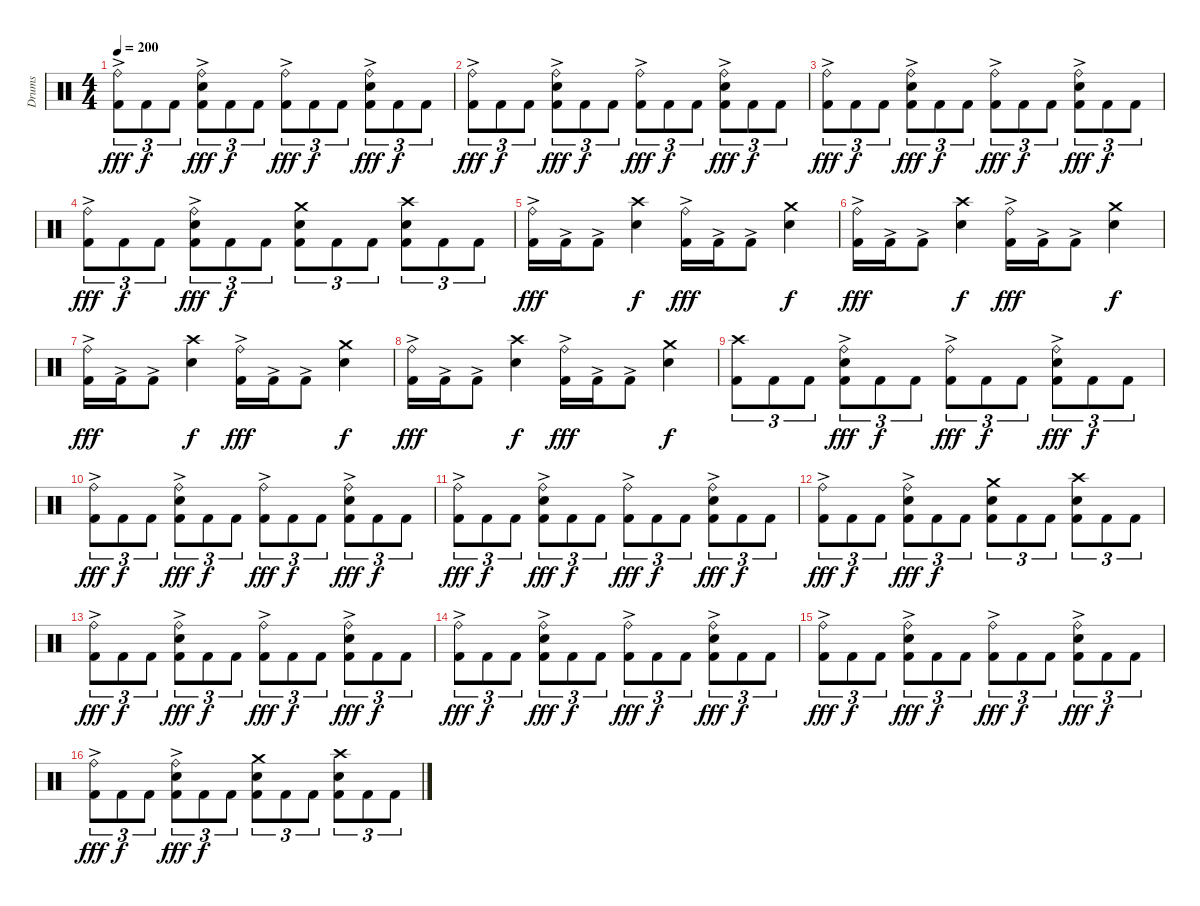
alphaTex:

\track ("Drums" "Drums") {instrument percussion}
\staff {score}
\articulation defaults
\ts (4 4)
\tempo 200
\clef neutral
\ks c
("Ride (bell)"{ac} "Kick (hit) 2").8{tu (3 2) dy fff} "Kick (hit) 2".8{tu (3 2) dy f} "Kick (hit) 2".8{tu (3 2)} ("Ride (bell)"{ac} "Snare (hit) 2" "Kick (hit) 2").8{tu (3 2) dy fff} "Kick (hit) 2".8{tu (3 2) dy f} "Kick (hit) 2".8{tu (3 2)} ("Ride (bell)"{ac} "Kick (hit) 2").8{tu (3 2) dy fff} "Kick (hit) 2".8{tu (3 2) dy f} "Kick (hit) 2".8{tu (3 2)} ("Ride (bell)"{ac} "Snare (hit) 2" "Kick (hit) 2").8{tu (3 2) dy fff} "Kick (hit) 2".8{tu (3 2) dy f} "Kick (hit) 2".8{tu (3 2)} |
("Ride (bell)"{ac} "Kick (hit) 2").8{tu (3 2) dy fff} "Kick (hit) 2".8{tu (3 2) dy f} "Kick (hit) 2".8{tu (3 2)} ("Ride (bell)"{ac} "Snare (hit) 2" "Kick (hit) 2").8{tu (3 2) dy fff} "Kick (hit) 2".8{tu (3 2) dy f} "Kick (hit) 2".8{tu (3 2)} ("Ride (bell)"{ac} "Kick (hit) 2").8{tu (3 2) dy fff} "Kick (hit) 2".8{tu (3 2) dy f} "Kick (hit) 2".8{tu (3 2)} ("Ride (bell)"{ac} "Snare (hit) 2" "Kick (hit) 2").8{tu (3 2) dy fff} "Kick (hit) 2".8{tu (3 2) dy f} "Kick (hit) 2".8{tu (3 2)} |
("Ride (bell)"{ac} "Kick (hit) 2").8{tu (3 2) dy fff} "Kick (hit) 2".8{tu (3 2) dy f} "Kick (hit) 2".8{tu (3 2)} ("Ride (bell)"{ac} "Snare (hit) 2" "Kick (hit) 2").8{tu (3 2) dy fff} "Kick (hit) 2".8{tu (3 2) dy f} "Kick (hit) 2".8{tu (3 2)} ("Ride (bell)"{ac} "Kick (hit) 2").8{tu (3 2) dy fff} "Kick (hit) 2".8{tu (3 2) dy f} "Kick (hit) 2".8{tu (3 2)} ("Ride (bell)"{ac} "Snare (hit) 2" "Kick (hit) 2").8{tu (3 2) dy fff} "Kick (hit) 2".8{tu (3 2) dy f} "Kick (hit) 2".8{tu (3 2)} |
("Ride (bell)"{ac} "Kick (hit) 2").8{tu (3 2) dy fff} "Kick (hit) 2".8{tu (3 2) dy f} "Kick (hit) 2".8{tu (3 2)} ("Ride (bell)"{ac} "Snare (hit) 2" "Kick (hit) 2").8{tu (3 2) dy fff} "Kick (hit) 2".8{tu (3 2) dy f} "Kick (hit) 2".8{tu (3 2)} ("Crash medium (hit)" "Snare (hit) 2" "Kick (hit) 2").8{tu (3 2)} "Kick (hit) 2".8{tu (3 2)} "Kick (hit) 2".8{tu (3 2)} ("Crash high (hit)" "Snare (hit) 2" "Kick (hit) 2").8{tu (3 2)} "Kick (hit) 2".8{tu (3 2)} "Kick (hit) 2".8{tu (3 2)} |
("Ride (bell)"{ac} "Kick (hit) 2"{ac}).16{dy fff} "Kick (hit) 2"{ac}.16 "Kick (hit) 2"{ac}.8 ("Crash high (hit)" "Snare (hit) 2").4{dy f} ("Ride (bell)"{ac} "Kick (hit) 2"{ac}).16{dy fff} "Kick (hit) 2"{ac}.16 "Kick (hit) 2"{ac}.8 ("Crash medium (hit)" "Snare (hit) 2").4{dy f} |
("Ride (bell)"{ac} "Kick (hit) 2"{ac}).16{dy fff} "Kick (hit) 2"{ac}.16 "Kick (hit) 2"{ac}.8 ("Crash high (hit)" "Snare (hit) 2").4{dy f} ("Ride (bell)"{ac} "Kick (hit) 2"{ac}).16{dy fff} "Kick (hit) 2"{ac}.16 "Kick (hit) 2"{ac}.8 ("Crash medium (hit)" "Snare (hit) 2").4{dy f} |
("Ride (bell)"{ac} "Kick (hit) 2"{ac}).16{dy fff} "Kick (hit) 2"{ac}.16 "Kick (hit) 2"{ac}.8 ("Crash high (hit)" "Snare (hit) 2").4{dy f} ("Ride (bell)"{ac} "Kick (hit) 2"{ac}).16{dy fff} "Kick (hit) 2"{ac}.16 "Kick (hit) 2"{ac}.8 ("Crash medium (hit)" "Snare (hit) 2").4{dy f} |
("Ride (bell)"{ac} "Kick (hit) 2"{ac}).16{dy fff} "Kick (hit) 2"{ac}.16 "Kick (hit) 2"{ac}.8 ("Crash high (hit)" "Snare (hit) 2").4{dy f} ("Ride (bell)"{ac} "Kick (hit) 2"{ac}).16{dy fff} "Kick (hit) 2"{ac}.16 "Kick (hit) 2"{ac}.8 ("Crash medium (hit)" "Snare (hit) 2").4{dy f} |
("Crash high (hit)" "Kick (hit) 2").8{tu (3 2)} "Kick (hit) 2".8{tu (3 2)} "Kick (hit) 2".8{tu (3 2)} ("Ride (bell)"{ac} "Snare (hit) 2" "Kick (hit) 2").8{tu (3 2) dy fff} "Kick (hit) 2".8{tu (3 2) dy f} "Kick (hit) 2".8{tu (3 2)} ("Ride (bell)"{ac} "Kick (hit) 2").8{tu (3 2) dy fff} "Kick (hit) 2".8{tu (3 2) dy f} "Kick (hit) 2".8{tu (3 2)} ("Ride (bell)"{ac} "Snare (hit) 2" "Kick (hit) 2").8{tu (3 2) dy fff} "Kick (hit) 2".8{tu (3 2) dy f} "Kick (hit) 2".8{tu (3 2)} |
("Ride (bell)"{ac} "Kick (hit) 2").8{tu (3 2) dy fff} "Kick (hit) 2".8{tu (3 2) dy f} "Kick (hit) 2".8{tu (3 2)} ("Ride (bell)"{ac} "Snare (hit) 2" "Kick (hit) 2").8{tu (3 2) dy fff} "Kick (hit) 2".8{tu (3 2) dy f} "Kick (hit) 2".8{tu (3 2)} ("Ride (bell)"{ac} "Kick (hit) 2").8{tu (3 2) dy fff} "Kick (hit) 2".8{tu (3 2) dy f} "Kick (hit) 2".8{tu (3 2)} ("Ride (bell)"{ac} "Snare (hit) 2" "Kick (hit) 2").8{tu (3 2) dy fff} "Kick (hit) 2".8{tu (3 2) dy f} "Kick (hit) 2".8{tu (3 2)} |
("Ride (bell)"{ac} "Kick (hit) 2").8{tu (3 2) dy fff} "Kick (hit) 2".8{tu (3 2) dy f} "Kick (hit) 2".8{tu (3 2)} ("Ride (bell)"{ac} "Snare (hit) 2" "Kick (hit) 2").8{tu (3 2) dy fff} "Kick (hit) 2".8{tu (3 2) dy f} "Kick (hit) 2".8{tu (3 2)} ("Ride (bell)"{ac} "Kick (hit) 2").8{tu (3 2) dy fff} "Kick (hit) 2".8{tu (3 2) dy f} "Kick (hit) 2".8{tu (3 2)} ("Ride (bell)"{ac} "Snare (hit) 2" "Kick (hit) 2").8{tu (3 2) dy fff} "Kick (hit) 2".8{tu (3 2) dy f} "Kick (hit) 2".8{tu (3 2)} |
("Ride (bell)"{ac} "Kick (hit) 2").8{tu (3 2) dy fff} "Kick (hit) 2".8{tu (3 2) dy f} "Kick (hit) 2".8{tu (3 2)} ("Ride (bell)"{ac} "Snare (hit) 2" "Kick (hit) 2").8{tu (3 2) dy fff} "Kick (hit) 2".8{tu (3 2) dy f} "Kick (hit) 2".8{tu (3 2)} ("Crash medium (hit)" "Snare (hit) 2" "Kick (hit) 2").8{tu (3 2)} "Kick (hit) 2".8{tu (3 2)} "Kick (hit) 2".8{tu (3 2)} ("Crash high (hit)" "Snare (hit) 2" "Kick (hit) 2").8{tu (3 2)} "Kick (hit) 2".8{tu (3 2)} "Kick (hit) 2".8{tu (3 2)} |
("Ride (bell)"{ac} "Kick (hit) 2").8{tu (3 2) dy fff} "Kick (hit) 2".8{tu (3 2) dy f} "Kick (hit) 2".8{tu (3 2)} ("Ride (bell)"{ac} "Snare (hit) 2" "Kick (hit) 2").8{tu (3 2) dy fff} "Kick (hit) 2".8{tu (3 2) dy f} "Kick (hit) 2".8{tu (3 2)} ("Ride (bell)"{ac} "Kick (hit) 2").8{tu (3 2) dy fff} "Kick (hit) 2".8{tu (3 2) dy f} "Kick (hit) 2".8{tu (3 2)} ("Ride (bell)"{ac} "Snare (hit) 2" "Kick (hit) 2").8{tu (3 2) dy fff} "Kick (hit) 2".8{tu (3 2) dy f} "Kick (hit) 2".8{tu (3 2)} |
("Ride (bell)"{ac} "Kick (hit) 2").8{tu (3 2) dy fff} "Kick (hit) 2".8{tu (3 2) dy f} "Kick (hit) 2".8{tu (3 2)} ("Ride (bell)"{ac} "Snare (hit) 2" "Kick (hit) 2").8{tu (3 2) dy fff} "Kick (hit) 2".8{tu (3 2) dy f} "Kick (hit) 2".8{tu (3 2)} ("Ride (bell)"{ac} "Kick (hit) 2").8{tu (3 2) dy fff} "Kick (hit) 2".8{tu (3 2) dy f} "Kick (hit) 2".8{tu (3 2)} ("Ride (bell)"{ac} "Snare (hit) 2" "Kick (hit) 2").8{tu (3 2) dy fff} "Kick (hit) 2".8{tu (3 2) dy f} "Kick (hit) 2".8{tu (3 2)} |
("Ride (bell)"{ac} "Kick (hit) 2").8{tu (3 2) dy fff} "Kick (hit) 2".8{tu (3 2) dy f} "Kick (hit) 2".8{tu (3 2)} ("Ride (bell)"{ac} "Snare (hit) 2" "Kick (hit) 2").8{tu (3 2) dy fff} "Kick (hit) 2".8{tu (3 2) dy f} "Kick (hit) 2".8{tu (3 2)} ("Ride (bell)"{ac} "Kick (hit) 2").8{tu (3 2) dy fff} "Kick (hit) 2".8{tu (3 2) dy f} "Kick (hit) 2".8{tu (3 2)} ("Ride (bell)"{ac} "Snare (hit) 2" "Kick (hit) 2").8{tu (3 2) dy fff} "Kick (hit) 2".8{tu (3 2) dy f} "Kick (hit) 2".8{tu (3 2)} |
("Ride (bell)"{ac} "Kick (hit) 2").8{tu (3 2) dy fff} "Kick (hit) 2".8{tu (3 2) dy f} "Kick (hit) 2".8{tu (3 2)} ("Ride (bell)"{ac} "Snare (hit) 2" "Kick (hit) 2").8{tu (3 2) dy fff} "Kick (hit) 2".8{tu (3 2) dy f} "Kick (hit) 2".8{tu (3 2)} ("Crash medium (hit)" "Snare (hit) 2" "Kick (hit) 2").8{tu (3 2)} "Kick (hit) 2".8{tu (3 2)} "Kick (hit) 2".8{tu (3 2)} ("Crash high (hit)" "Snare (hit) 2" "Kick (hit) 2").8{tu (3 2)} "Kick (hit) 2".8{tu (3 2)} "Kick (hit) 2".8{tu (3 2)}
